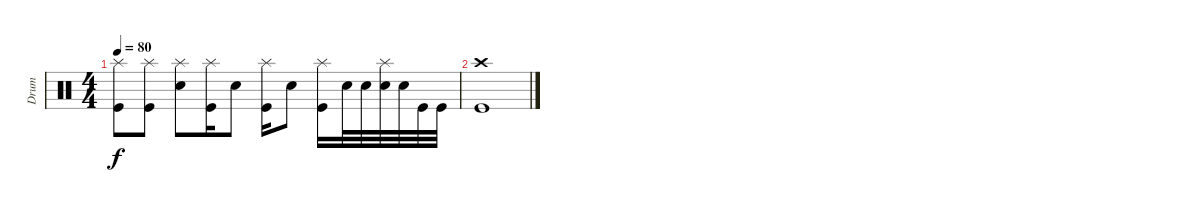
\track ("Drum" "Drum") {instrument percussion}
\staff {score}
\articulation defaults
\ts (4 4)
\tempo 80
\clef neutral
\ks c
("Splash (hit)" "Kick (hit)").8{dy f} ("Splash (hit)" "Kick (hit)").8 ("Splash (hit)" "Electric Snare (hit)").8 ("Splash (hit)" "Kick (hit)").16 "Electric Snare (hit)".8 ("Splash (hit)" "Kick (hit)").16 "Electric Snare (hit)".8 ("Splash (hit)" "Kick (hit)").16 "Electric Snare (hit)".32 "Electric Snare (hit)".32 ("Splash (hit)" "Electric Snare (hit)").32 "Electric Snare (hit)".32 "Kick (hit)".32 "Kick (hit)".32 |
("Crash high (hit)" "Kick (hit)").1
